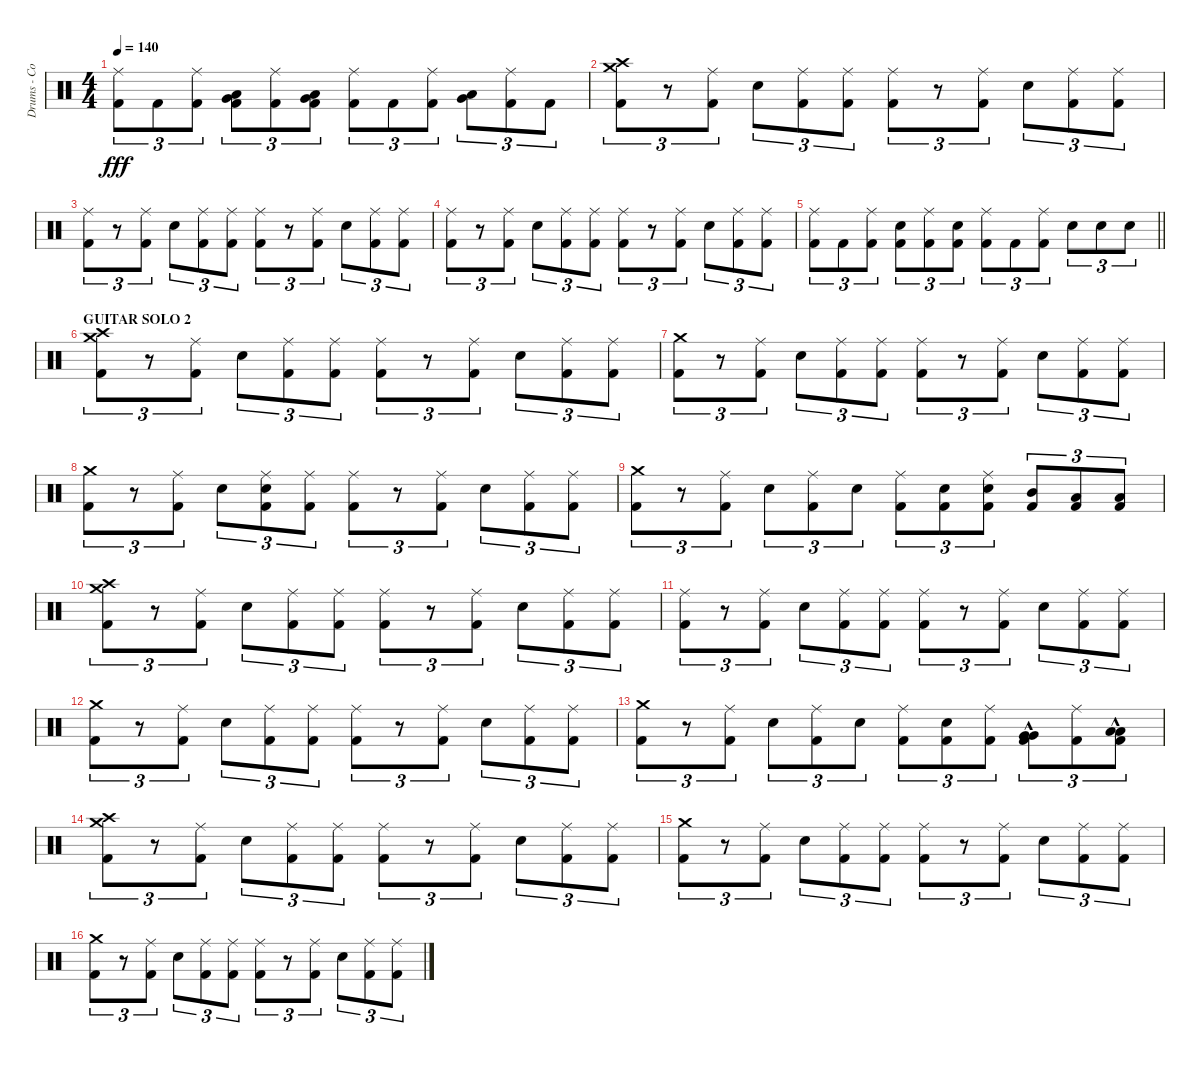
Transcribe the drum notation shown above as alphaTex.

\track ("Drums - Cozy Powell" "Drums - Co") {instrument percussion}
\staff {score}
\articulation defaults
\ts (4 4)
\tempo 140
\clef neutral
\ks c
("Ride (middle)" "Kick (hit) 2").8{tu (3 2) dy fff} "Kick (hit) 2".8{tu (3 2)} ("Ride (middle)" "Kick (hit) 2").8{tu (3 2)} ("Very Low Tom (hit)" "Low Floor Tom (hit)" "Kick (hit) 2").8{tu (3 2)} ("Ride (middle)" "Kick (hit) 2").8{tu (3 2)} ("Very Low Tom (hit)" "Low Floor Tom (hit)" "Kick (hit) 2").8{tu (3 2)} ("Ride (middle)" "Kick (hit) 2").8{tu (3 2)} "Kick (hit) 2".8{tu (3 2)} ("Ride (middle)" "Kick (hit) 2").8{tu (3 2)} ("Very Low Tom (hit)" "Low Floor Tom (hit)").8{tu (3 2)} ("Ride (middle)" "Kick (hit) 2").8{tu (3 2)} "Kick (hit) 2".8{tu (3 2)} |
("Crash high (hit)" "Crash medium (hit)" "Kick (hit) 2").8{tu (3 2)} r.8{tu (3 2)} ("Ride (middle)" "Kick (hit) 2").8{tu (3 2)} "Snare (hit) 2".8{tu (3 2)} ("Ride (middle)" "Kick (hit) 2").8{tu (3 2)} ("Ride (middle)" "Kick (hit) 2").8{tu (3 2)} ("Ride (middle)" "Kick (hit) 2").8{tu (3 2)} r.8{tu (3 2)} ("Ride (middle)" "Kick (hit) 2").8{tu (3 2)} "Snare (hit) 2".8{tu (3 2)} ("Ride (middle)" "Kick (hit) 2").8{tu (3 2)} ("Ride (middle)" "Kick (hit) 2").8{tu (3 2)} |
("Ride (middle)" "Kick (hit) 2").8{tu (3 2)} r.8{tu (3 2)} ("Ride (middle)" "Kick (hit) 2").8{tu (3 2)} "Snare (hit) 2".8{tu (3 2)} ("Ride (middle)" "Kick (hit) 2").8{tu (3 2)} ("Ride (middle)" "Kick (hit) 2").8{tu (3 2)} ("Ride (middle)" "Kick (hit) 2").8{tu (3 2)} r.8{tu (3 2)} ("Ride (middle)" "Kick (hit) 2").8{tu (3 2)} "Snare (hit) 2".8{tu (3 2)} ("Ride (middle)" "Kick (hit) 2").8{tu (3 2)} ("Ride (middle)" "Kick (hit) 2").8{tu (3 2)} |
("Ride (middle)" "Kick (hit) 2").8{tu (3 2)} r.8{tu (3 2)} ("Ride (middle)" "Kick (hit) 2").8{tu (3 2)} "Snare (hit) 2".8{tu (3 2)} ("Ride (middle)" "Kick (hit) 2").8{tu (3 2)} ("Ride (middle)" "Kick (hit) 2").8{tu (3 2)} ("Ride (middle)" "Kick (hit) 2").8{tu (3 2)} r.8{tu (3 2)} ("Ride (middle)" "Kick (hit) 2").8{tu (3 2)} "Snare (hit) 2".8{tu (3 2)} ("Ride (middle)" "Kick (hit) 2").8{tu (3 2)} ("Ride (middle)" "Kick (hit) 2").8{tu (3 2)} |
\barLineRight lightlight
("Ride (middle)" "Kick (hit) 2").8{tu (3 2)} "Kick (hit) 2".8{tu (3 2)} ("Ride (middle)" "Kick (hit) 2").8{tu (3 2)} ("Snare (hit) 2" "Kick (hit) 2").8{tu (3 2)} ("Ride (middle)" "Kick (hit) 2").8{tu (3 2)} ("Snare (hit) 2" "Kick (hit) 2").8{tu (3 2)} ("Ride (middle)" "Kick (hit) 2").8{tu (3 2)} "Kick (hit) 2".8{tu (3 2)} ("Ride (middle)" "Kick (hit) 2").8{tu (3 2)} "Snare (hit) 2".8{tu (3 2)} "Snare (hit) 2".8{tu (3 2)} "Snare (hit) 2".8{tu (3 2)} |
\section ("" "GUITAR SOLO 2")
("Crash high (hit)" "Crash medium (hit)" "Kick (hit) 2").8{tu (3 2)} r.8{tu (3 2)} ("Ride (middle)" "Kick (hit) 2").8{tu (3 2)} "Snare (hit) 2".8{tu (3 2)} ("Ride (middle)" "Kick (hit) 2").8{tu (3 2)} ("Ride (middle)" "Kick (hit) 2").8{tu (3 2)} ("Ride (middle)" "Kick (hit) 2").8{tu (3 2)} r.8{tu (3 2)} ("Ride (middle)" "Kick (hit) 2").8{tu (3 2)} "Snare (hit) 2".8{tu (3 2)} ("Ride (middle)" "Kick (hit) 2").8{tu (3 2)} ("Ride (middle)" "Kick (hit) 2").8{tu (3 2)} |
("Crash medium (hit)" "Kick (hit) 2").8{tu (3 2)} r.8{tu (3 2)} ("Ride (middle)" "Kick (hit) 2").8{tu (3 2)} "Snare (hit) 2".8{tu (3 2)} ("Ride (middle)" "Kick (hit) 2").8{tu (3 2)} ("Ride (middle)" "Kick (hit) 2").8{tu (3 2)} ("Ride (middle)" "Kick (hit) 2").8{tu (3 2)} r.8{tu (3 2)} ("Ride (middle)" "Kick (hit) 2").8{tu (3 2)} "Snare (hit) 2".8{tu (3 2)} ("Ride (middle)" "Kick (hit) 2").8{tu (3 2)} ("Ride (middle)" "Kick (hit) 2").8{tu (3 2)} |
("Crash medium (hit)" "Kick (hit) 2").8{tu (3 2)} r.8{tu (3 2)} ("Ride (middle)" "Kick (hit) 2").8{tu (3 2)} "Snare (hit) 2".8{tu (3 2)} ("Ride (middle)" "Snare (hit) 2" "Kick (hit) 2").8{tu (3 2)} ("Ride (middle)" "Kick (hit) 2").8{tu (3 2)} ("Ride (middle)" "Kick (hit) 2").8{tu (3 2)} r.8{tu (3 2)} ("Ride (middle)" "Kick (hit) 2").8{tu (3 2)} "Snare (hit) 2".8{tu (3 2)} ("Ride (middle)" "Kick (hit) 2").8{tu (3 2)} ("Ride (middle)" "Kick (hit) 2").8{tu (3 2)} |
("Crash medium (hit)" "Kick (hit) 2").8{tu (3 2)} r.8{tu (3 2)} ("Ride (middle)" "Kick (hit) 2").8{tu (3 2)} "Snare (hit) 2".8{tu (3 2)} ("Ride (middle)" "Kick (hit) 2").8{tu (3 2)} "Snare (hit) 2".8{tu (3 2)} ("Ride (middle)" "Kick (hit) 2").8{tu (3 2)} ("Snare (hit) 2" "Kick (hit) 2").8{tu (3 2)} ("Ride (middle)" "Snare (hit) 2" "Kick (hit) 2").8{tu (3 2)} ("Mid Tom (hit)" "Kick (hit) 2").8{tu (3 2)} ("Low Tom (hit)" "Kick (hit) 2").8{tu (3 2)} ("Low Floor Tom (hit)" "Kick (hit) 2").8{tu (3 2)} |
("Crash high (hit)" "Crash medium (hit)" "Kick (hit) 2").8{tu (3 2)} r.8{tu (3 2)} ("Ride (middle)" "Kick (hit) 2").8{tu (3 2)} "Snare (hit) 2".8{tu (3 2)} ("Ride (middle)" "Kick (hit) 2").8{tu (3 2)} ("Ride (middle)" "Kick (hit) 2").8{tu (3 2)} ("Ride (middle)" "Kick (hit) 2").8{tu (3 2)} r.8{tu (3 2)} ("Ride (middle)" "Kick (hit) 2").8{tu (3 2)} "Snare (hit) 2".8{tu (3 2)} ("Ride (middle)" "Kick (hit) 2").8{tu (3 2)} ("Ride (middle)" "Kick (hit) 2").8{tu (3 2)} |
("Ride (middle)" "Kick (hit) 2").8{tu (3 2)} r.8{tu (3 2)} ("Ride (middle)" "Kick (hit) 2").8{tu (3 2)} "Snare (hit) 2".8{tu (3 2)} ("Ride (middle)" "Kick (hit) 2").8{tu (3 2)} ("Ride (middle)" "Kick (hit) 2").8{tu (3 2)} ("Ride (middle)" "Kick (hit) 2").8{tu (3 2)} r.8{tu (3 2)} ("Ride (middle)" "Kick (hit) 2").8{tu (3 2)} "Snare (hit) 2".8{tu (3 2)} ("Ride (middle)" "Kick (hit) 2").8{tu (3 2)} ("Ride (middle)" "Kick (hit) 2").8{tu (3 2)} |
("Crash medium (hit)" "Kick (hit) 2").8{tu (3 2)} r.8{tu (3 2)} ("Ride (middle)" "Kick (hit) 2").8{tu (3 2)} "Snare (hit) 2".8{tu (3 2)} ("Ride (middle)" "Kick (hit) 2").8{tu (3 2)} ("Ride (middle)" "Kick (hit) 2").8{tu (3 2)} ("Ride (middle)" "Kick (hit) 2").8{tu (3 2)} r.8{tu (3 2)} ("Ride (middle)" "Kick (hit) 2").8{tu (3 2)} "Snare (hit) 2".8{tu (3 2)} ("Ride (middle)" "Kick (hit) 2").8{tu (3 2)} ("Ride (middle)" "Kick (hit) 2").8{tu (3 2)} |
("Crash medium (hit)" "Kick (hit) 2").8{tu (3 2)} r.8{tu (3 2)} ("Ride (middle)" "Kick (hit) 2").8{tu (3 2)} "Snare (hit) 2".8{tu (3 2)} ("Ride (middle)" "Kick (hit) 2").8{tu (3 2)} "Snare (hit) 2".8{tu (3 2)} ("Ride (middle)" "Kick (hit) 2").8{tu (3 2)} ("Snare (hit) 2" "Kick (hit) 2").8{tu (3 2)} ("Ride (middle)" "Kick (hit) 2").8{tu (3 2)} ("Very Low Tom (hit)"{hac} "Very Low Tom (hit)"{hac} "Kick (hit) 2"{hac}).8{tu (3 2)} ("Ride (middle)" "Kick (hit) 2").8{tu (3 2)} ("Low Floor Tom (hit)"{hac} "Low Floor Tom (hit)"{hac} "Kick (hit) 2"{hac}).8{tu (3 2)} |
("Crash high (hit)" "Crash medium (hit)" "Kick (hit) 2").8{tu (3 2)} r.8{tu (3 2)} ("Ride (middle)" "Kick (hit) 2").8{tu (3 2)} "Snare (hit) 2".8{tu (3 2)} ("Ride (middle)" "Kick (hit) 2").8{tu (3 2)} ("Ride (middle)" "Kick (hit) 2").8{tu (3 2)} ("Ride (middle)" "Kick (hit) 2").8{tu (3 2)} r.8{tu (3 2)} ("Ride (middle)" "Kick (hit) 2").8{tu (3 2)} "Snare (hit) 2".8{tu (3 2)} ("Ride (middle)" "Kick (hit) 2").8{tu (3 2)} ("Ride (middle)" "Kick (hit) 2").8{tu (3 2)} |
("Crash medium (hit)" "Kick (hit) 2").8{tu (3 2)} r.8{tu (3 2)} ("Ride (middle)" "Kick (hit) 2").8{tu (3 2)} "Snare (hit) 2".8{tu (3 2)} ("Ride (middle)" "Kick (hit) 2").8{tu (3 2)} ("Ride (middle)" "Kick (hit) 2").8{tu (3 2)} ("Ride (middle)" "Kick (hit) 2").8{tu (3 2)} r.8{tu (3 2)} ("Ride (middle)" "Kick (hit) 2").8{tu (3 2)} "Snare (hit) 2".8{tu (3 2)} ("Ride (middle)" "Kick (hit) 2").8{tu (3 2)} ("Ride (middle)" "Kick (hit) 2").8{tu (3 2)} |
("Crash medium (hit)" "Kick (hit) 2").8{tu (3 2)} r.8{tu (3 2)} ("Ride (middle)" "Kick (hit) 2").8{tu (3 2)} "Snare (hit) 2".8{tu (3 2)} ("Ride (middle)" "Kick (hit) 2").8{tu (3 2)} ("Ride (middle)" "Kick (hit) 2").8{tu (3 2)} ("Ride (middle)" "Kick (hit) 2").8{tu (3 2)} r.8{tu (3 2)} ("Ride (middle)" "Kick (hit) 2").8{tu (3 2)} "Snare (hit) 2".8{tu (3 2)} ("Ride (middle)" "Kick (hit) 2").8{tu (3 2)} ("Ride (middle)" "Kick (hit) 2").8{tu (3 2)}
